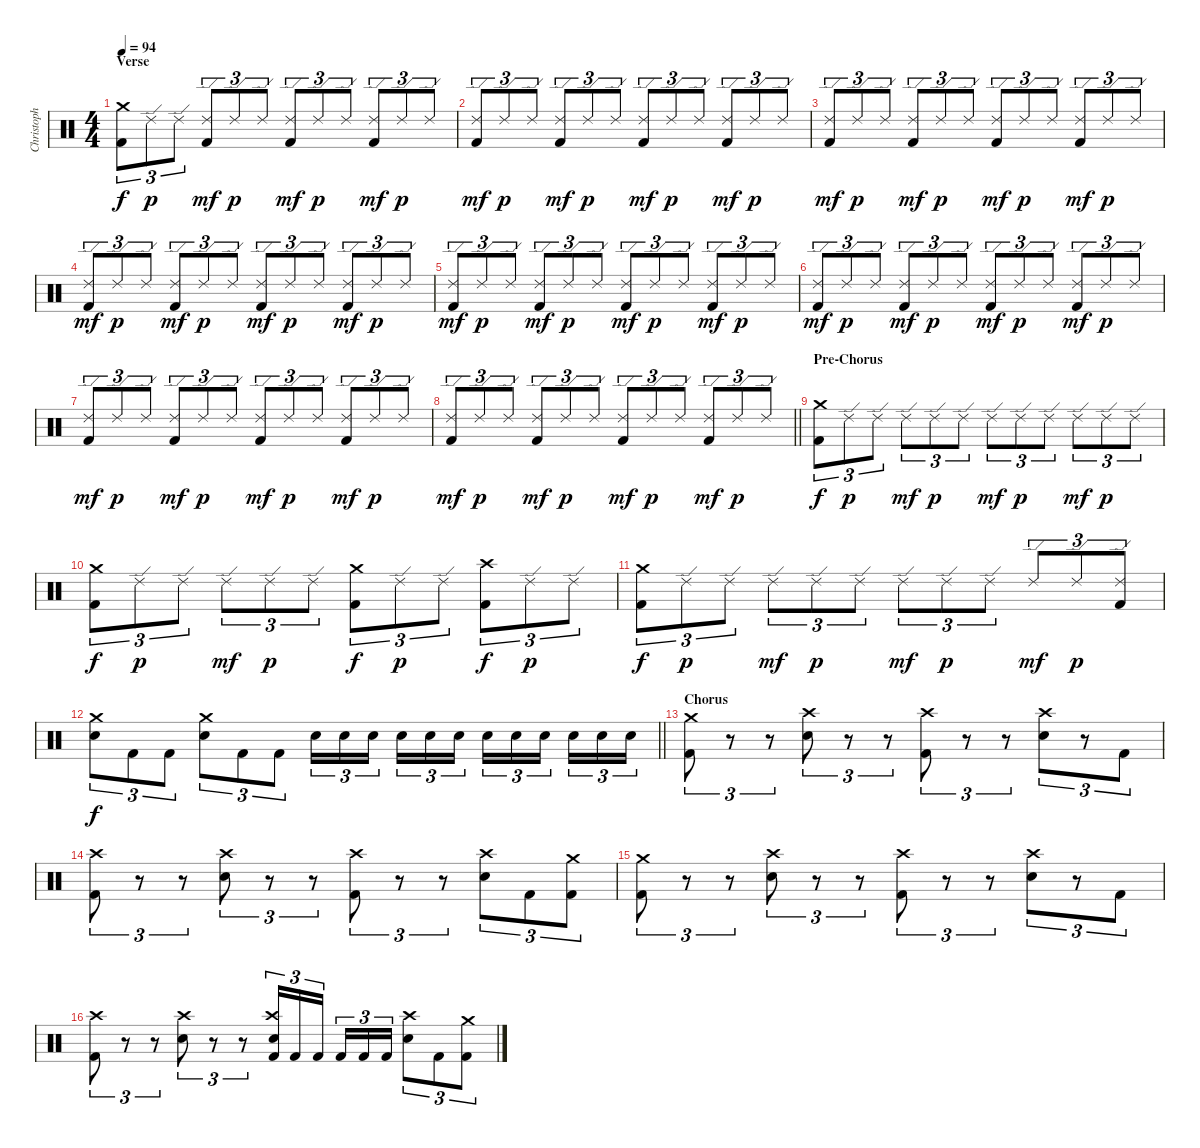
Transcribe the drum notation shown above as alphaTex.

\track ("Christoph Schneider [Drums]" "Christoph ") {instrument percussion}
\staff {score}
\articulation defaults
\ts (4 4)
\section ("" "Verse")
\tempo 94
\clef neutral
\ks c
("Crash medium (hit)" "Kick (hit) 2").8{tu (3 2) dy f} "Ride (edge) 2".8{tu (3 2) dy p} "Ride (edge) 2".8{tu (3 2)} ("Ride (edge) 2" "Kick (hit) 2").8{tu (3 2) dy mf} "Ride (edge) 2".8{tu (3 2) dy p} "Ride (edge) 2".8{tu (3 2)} ("Ride (edge) 2" "Kick (hit) 2").8{tu (3 2) dy mf} "Ride (edge) 2".8{tu (3 2) dy p} "Ride (edge) 2".8{tu (3 2)} ("Ride (edge) 2" "Kick (hit) 2").8{tu (3 2) dy mf} "Ride (edge) 2".8{tu (3 2) dy p} "Ride (edge) 2".8{tu (3 2)} |
("Ride (edge) 2" "Kick (hit) 2").8{tu (3 2) dy mf} "Ride (edge) 2".8{tu (3 2) dy p} "Ride (edge) 2".8{tu (3 2)} ("Ride (edge) 2" "Kick (hit) 2").8{tu (3 2) dy mf} "Ride (edge) 2".8{tu (3 2) dy p} "Ride (edge) 2".8{tu (3 2)} ("Ride (edge) 2" "Kick (hit) 2").8{tu (3 2) dy mf} "Ride (edge) 2".8{tu (3 2) dy p} "Ride (edge) 2".8{tu (3 2)} ("Ride (edge) 2" "Kick (hit) 2").8{tu (3 2) dy mf} "Ride (edge) 2".8{tu (3 2) dy p} "Ride (edge) 2".8{tu (3 2)} |
("Ride (edge) 2" "Kick (hit) 2").8{tu (3 2) dy mf} "Ride (edge) 2".8{tu (3 2) dy p} "Ride (edge) 2".8{tu (3 2)} ("Ride (edge) 2" "Kick (hit) 2").8{tu (3 2) dy mf} "Ride (edge) 2".8{tu (3 2) dy p} "Ride (edge) 2".8{tu (3 2)} ("Ride (edge) 2" "Kick (hit) 2").8{tu (3 2) dy mf} "Ride (edge) 2".8{tu (3 2) dy p} "Ride (edge) 2".8{tu (3 2)} ("Ride (edge) 2" "Kick (hit) 2").8{tu (3 2) dy mf} "Ride (edge) 2".8{tu (3 2) dy p} "Ride (edge) 2".8{tu (3 2)} |
("Ride (edge) 2" "Kick (hit) 2").8{tu (3 2) dy mf} "Ride (edge) 2".8{tu (3 2) dy p} "Ride (edge) 2".8{tu (3 2)} ("Ride (edge) 2" "Kick (hit) 2").8{tu (3 2) dy mf} "Ride (edge) 2".8{tu (3 2) dy p} "Ride (edge) 2".8{tu (3 2)} ("Ride (edge) 2" "Kick (hit) 2").8{tu (3 2) dy mf} "Ride (edge) 2".8{tu (3 2) dy p} "Ride (edge) 2".8{tu (3 2)} ("Ride (edge) 2" "Kick (hit) 2").8{tu (3 2) dy mf} "Ride (edge) 2".8{tu (3 2) dy p} "Ride (edge) 2".8{tu (3 2)} |
("Ride (edge) 2" "Kick (hit) 2").8{tu (3 2) dy mf} "Ride (edge) 2".8{tu (3 2) dy p} "Ride (edge) 2".8{tu (3 2)} ("Ride (edge) 2" "Kick (hit) 2").8{tu (3 2) dy mf} "Ride (edge) 2".8{tu (3 2) dy p} "Ride (edge) 2".8{tu (3 2)} ("Ride (edge) 2" "Kick (hit) 2").8{tu (3 2) dy mf} "Ride (edge) 2".8{tu (3 2) dy p} "Ride (edge) 2".8{tu (3 2)} ("Ride (edge) 2" "Kick (hit) 2").8{tu (3 2) dy mf} "Ride (edge) 2".8{tu (3 2) dy p} "Ride (edge) 2".8{tu (3 2)} |
("Ride (edge) 2" "Kick (hit) 2").8{tu (3 2) dy mf} "Ride (edge) 2".8{tu (3 2) dy p} "Ride (edge) 2".8{tu (3 2)} ("Ride (edge) 2" "Kick (hit) 2").8{tu (3 2) dy mf} "Ride (edge) 2".8{tu (3 2) dy p} "Ride (edge) 2".8{tu (3 2)} ("Ride (edge) 2" "Kick (hit) 2").8{tu (3 2) dy mf} "Ride (edge) 2".8{tu (3 2) dy p} "Ride (edge) 2".8{tu (3 2)} ("Ride (edge) 2" "Kick (hit) 2").8{tu (3 2) dy mf} "Ride (edge) 2".8{tu (3 2) dy p} "Ride (edge) 2".8{tu (3 2)} |
("Ride (edge) 2" "Kick (hit) 2").8{tu (3 2) dy mf} "Ride (edge) 2".8{tu (3 2) dy p} "Ride (edge) 2".8{tu (3 2)} ("Ride (edge) 2" "Kick (hit) 2").8{tu (3 2) dy mf} "Ride (edge) 2".8{tu (3 2) dy p} "Ride (edge) 2".8{tu (3 2)} ("Ride (edge) 2" "Kick (hit) 2").8{tu (3 2) dy mf} "Ride (edge) 2".8{tu (3 2) dy p} "Ride (edge) 2".8{tu (3 2)} ("Ride (edge) 2" "Kick (hit) 2").8{tu (3 2) dy mf} "Ride (edge) 2".8{tu (3 2) dy p} "Ride (edge) 2".8{tu (3 2)} |
\barLineRight lightlight
("Ride (edge) 2" "Kick (hit) 2").8{tu (3 2) dy mf} "Ride (edge) 2".8{tu (3 2) dy p} "Ride (edge) 2".8{tu (3 2)} ("Ride (edge) 2" "Kick (hit) 2").8{tu (3 2) dy mf} "Ride (edge) 2".8{tu (3 2) dy p} "Ride (edge) 2".8{tu (3 2)} ("Ride (edge) 2" "Kick (hit) 2").8{tu (3 2) dy mf} "Ride (edge) 2".8{tu (3 2) dy p} "Ride (edge) 2".8{tu (3 2)} ("Ride (edge) 2" "Kick (hit) 2").8{tu (3 2) dy mf} "Ride (edge) 2".8{tu (3 2) dy p} "Ride (edge) 2".8{tu (3 2)} |
\section ("" "Pre-Chorus")
("Crash medium (hit)" "Kick (hit) 2").8{tu (3 2) dy f} "Ride (edge) 2".8{tu (3 2) dy p} "Ride (edge) 2".8{tu (3 2)} "Ride (edge) 2".8{tu (3 2) dy mf} "Ride (edge) 2".8{tu (3 2) dy p} "Ride (edge) 2".8{tu (3 2)} "Ride (edge) 2".8{tu (3 2) dy mf} "Ride (edge) 2".8{tu (3 2) dy p} "Ride (edge) 2".8{tu (3 2)} "Ride (edge) 2".8{tu (3 2) dy mf} "Ride (edge) 2".8{tu (3 2) dy p} "Ride (edge) 2".8{tu (3 2)} |
("Crash medium (hit)" "Kick (hit) 2").8{tu (3 2) dy f} "Ride (edge) 2".8{tu (3 2) dy p} "Ride (edge) 2".8{tu (3 2)} "Ride (edge) 2".8{tu (3 2) dy mf} "Ride (edge) 2".8{tu (3 2) dy p} "Ride (edge) 2".8{tu (3 2)} ("Crash medium (hit)" "Kick (hit) 2").8{tu (3 2) dy f} "Ride (edge) 2".8{tu (3 2) dy p} "Ride (edge) 2".8{tu (3 2)} ("Crash high (hit)" "Kick (hit) 2").8{tu (3 2) dy f} "Ride (edge) 2".8{tu (3 2) dy p} "Ride (edge) 2".8{tu (3 2)} |
("Crash medium (hit)" "Kick (hit) 2").8{tu (3 2) dy f} "Ride (edge) 2".8{tu (3 2) dy p} "Ride (edge) 2".8{tu (3 2)} "Ride (edge) 2".8{tu (3 2) dy mf} "Ride (edge) 2".8{tu (3 2) dy p} "Ride (edge) 2".8{tu (3 2)} "Ride (edge) 2".8{tu (3 2) dy mf} "Ride (edge) 2".8{tu (3 2) dy p} "Ride (edge) 2".8{tu (3 2)} "Ride (edge) 2".8{tu (3 2) dy mf} "Ride (edge) 2".8{tu (3 2) dy p} ("Ride (edge) 2" "Kick (hit) 2").8{tu (3 2)} |
\barLineRight lightlight
("Crash medium (hit)" "Electric Snare (hit)").8{tu (3 2) dy f} "Kick (hit) 2".8{tu (3 2)} "Kick (hit) 2".8{tu (3 2)} ("Crash medium (hit)" "Electric Snare (hit)").8{tu (3 2)} "Kick (hit) 2".8{tu (3 2)} "Kick (hit) 2".8{tu (3 2)} "Electric Snare (hit)".16{tu (3 2)} "Electric Snare (hit)".16{tu (3 2)} "Electric Snare (hit)".16{tu (3 2)} "Electric Snare (hit)".16{tu (3 2)} "Electric Snare (hit)".16{tu (3 2)} "Electric Snare (hit)".16{tu (3 2)} "Electric Snare (hit)".16{tu (3 2)} "Electric Snare (hit)".16{tu (3 2)} "Electric Snare (hit)".16{tu (3 2)} "Electric Snare (hit)".16{tu (3 2)} "Electric Snare (hit)".16{tu (3 2)} "Electric Snare (hit)".16{tu (3 2)} |
\section ("" "Chorus")
("Crash medium (hit)" "Kick (hit) 2").8{tu (3 2)} r.8{tu (3 2)} r.8{tu (3 2)} ("Crash high (hit)" "Electric Snare (hit)").8{tu (3 2)} r.8{tu (3 2)} r.8{tu (3 2)} ("Crash high (hit)" "Kick (hit) 2").8{tu (3 2)} r.8{tu (3 2)} r.8{tu (3 2)} ("Crash high (hit)" "Electric Snare (hit)").8{tu (3 2)} r.8{tu (3 2)} "Kick (hit) 2".8{tu (3 2)} |
("Crash high (hit)" "Kick (hit) 2").8{tu (3 2)} r.8{tu (3 2)} r.8{tu (3 2)} ("Crash high (hit)" "Electric Snare (hit)").8{tu (3 2)} r.8{tu (3 2)} r.8{tu (3 2)} ("Crash high (hit)" "Kick (hit) 2").8{tu (3 2)} r.8{tu (3 2)} r.8{tu (3 2)} ("Crash high (hit)" "Electric Snare (hit)").8{tu (3 2)} "Kick (hit) 2".8{tu (3 2)} ("Crash medium (hit)" "Kick (hit) 2").8{tu (3 2)} |
("Crash medium (hit)" "Kick (hit) 2").8{tu (3 2)} r.8{tu (3 2)} r.8{tu (3 2)} ("Crash high (hit)" "Electric Snare (hit)").8{tu (3 2)} r.8{tu (3 2)} r.8{tu (3 2)} ("Crash high (hit)" "Kick (hit) 2").8{tu (3 2)} r.8{tu (3 2)} r.8{tu (3 2)} ("Crash high (hit)" "Electric Snare (hit)").8{tu (3 2)} r.8{tu (3 2)} "Kick (hit) 2".8{tu (3 2)} |
("Crash high (hit)" "Kick (hit) 2").8{tu (3 2)} r.8{tu (3 2)} r.8{tu (3 2)} ("Crash high (hit)" "Electric Snare (hit)").8{tu (3 2)} r.8{tu (3 2)} r.8{tu (3 2)} ("Crash high (hit)" "Electric Snare (hit)" "Kick (hit) 2").16{tu (3 2)} "Kick (hit) 2".16{tu (3 2)} "Kick (hit) 2".16{tu (3 2)} "Kick (hit) 2".16{tu (3 2)} "Kick (hit) 2".16{tu (3 2)} "Kick (hit) 2".16{tu (3 2)} ("Crash high (hit)" "Electric Snare (hit)").8{tu (3 2)} "Kick (hit) 2".8{tu (3 2)} ("Crash medium (hit)" "Kick (hit) 2").8{tu (3 2)}
